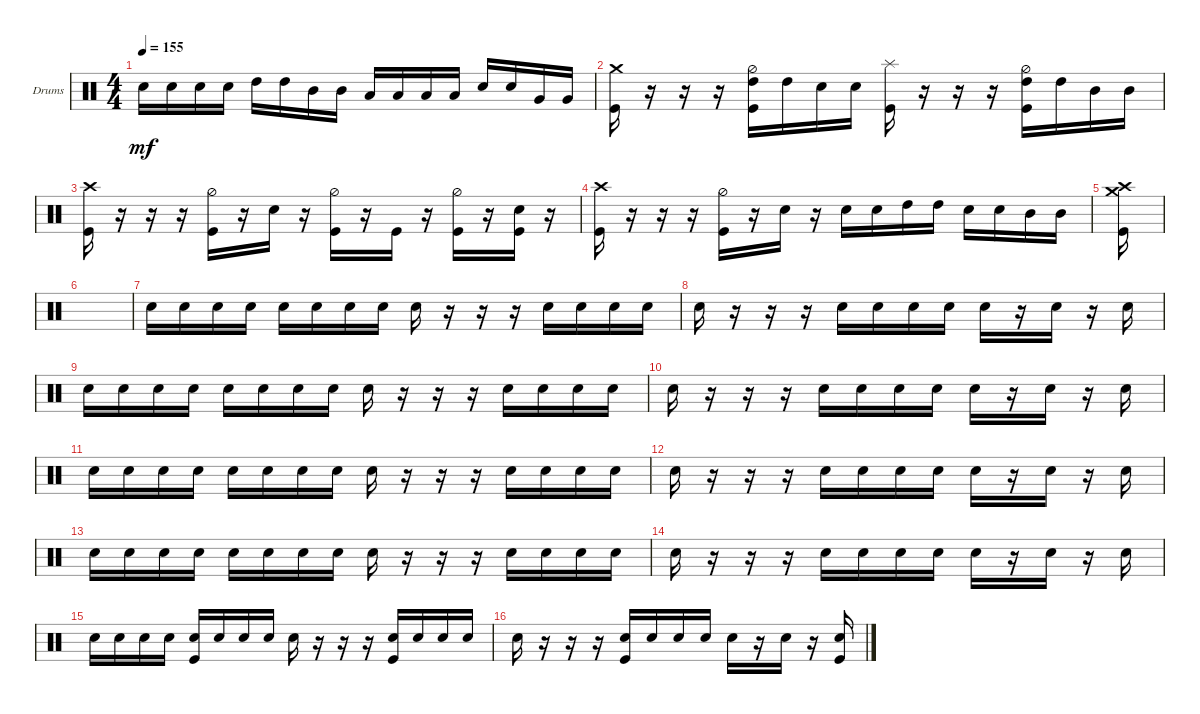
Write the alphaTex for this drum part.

\defaultSystemsLayout 4
\bracketExtendMode groupsimilarinstruments
\firstSystemTrackNameOrientation horizontal
\otherSystemsTrackNameOrientation horizontal
\track ("Drumkit" "Drums") {instrument percussion}
\staff {score}
\articulation defaults
\ts (4 4)
\tempo 155
\clef neutral
\ks c "Snare (hit) 2".16{dy mf} "Snare (hit) 2".16 "Snare (hit) 2".16 "Snare (hit) 2".16 "High Tom (hit)".16 "High Tom (hit)".16 "Mid Tom (hit)".16 "Mid Tom (hit)".16 "Low Tom (hit)".16 "Low Tom (hit)".16 "Low Tom (hit)".16 "Low Tom (hit)".16 "Snare (hit) 2".16 "Snare (hit) 2".16 "Very Low Tom (hit)".16 "Very Low Tom (hit)".16
|
("Kick (hit)" "Crash medium (hit)").16 r.16 r.16 r.16 ("Kick (hit)" "Hi-Hat (half)" "High Tom (hit)").16 "High Tom (hit)".16 "Snare (hit) 2".16 "Snare (hit) 2".16 ("Splash (hit)" "Kick (hit)").16 r.16 r.16 r.16 ("Kick (hit)" "Hi-Hat (half)" "High Tom (hit)").16 "High Tom (hit)".16 "Mid Tom (hit)".16 "Mid Tom (hit)".16 |
("Kick (hit)" "Crash high (hit)").16 r.16 r.16 r.16 ("Kick (hit)" "Hi-Hat (half)").16 r.16 "Snare (hit) 2".16 r.16 ("Kick (hit)" "Hi-Hat (half)").16 r.16 "Kick (hit)".16 r.16 ("Kick (hit)" "Hi-Hat (half)").16 r.16 ("Kick (hit)" "Snare (hit) 2").16 r.16 |
("Kick (hit)" "Crash high (hit)").16 r.16 r.16 r.16 ("Kick (hit)" "Hi-Hat (half)").16 r.16 "Snare (hit) 2".16 r.16 "Snare (hit) 2".16 "Snare (hit) 2".16 "High Tom (hit)".16 "High Tom (hit)".16 "Snare (hit) 2".16 "Snare (hit) 2".16 "Mid Tom (hit)".16 "Mid Tom (hit)".16 |
("Kick (hit)" "Crash medium (hit)" "Crash high (hit)").16 |
|
"Snare (hit) 2".16 "Snare (hit) 2".16 "Snare (hit) 2".16 "Snare (hit) 2".16 "Snare (hit) 2".16 "Snare (hit) 2".16 "Snare (hit) 2".16 "Snare (hit) 2".16 "Snare (hit) 2".16 r.16 r.16 r.16 "Snare (hit) 2".16 "Snare (hit) 2".16 "Snare (hit) 2".16 "Snare (hit) 2".16 |
"Snare (hit) 2".16 r.16 r.16 r.16 "Snare (hit) 2".16 "Snare (hit) 2".16 "Snare (hit) 2".16 "Snare (hit) 2".16 "Snare (hit) 2".16 r.16 "Snare (hit) 2".16 r.16 "Snare (hit) 2".16 |
"Snare (hit) 2".16 "Snare (hit) 2".16 "Snare (hit) 2".16 "Snare (hit) 2".16 "Snare (hit) 2".16 "Snare (hit) 2".16 "Snare (hit) 2".16 "Snare (hit) 2".16 "Snare (hit) 2".16 r.16 r.16 r.16 "Snare (hit) 2".16 "Snare (hit) 2".16 "Snare (hit) 2".16 "Snare (hit) 2".16 |
"Snare (hit) 2".16 r.16 r.16 r.16 "Snare (hit) 2".16 "Snare (hit) 2".16 "Snare (hit) 2".16 "Snare (hit) 2".16 "Snare (hit) 2".16 r.16 "Snare (hit) 2".16 r.16 "Snare (hit) 2".16 |
"Snare (hit) 2".16 "Snare (hit) 2".16 "Snare (hit) 2".16 "Snare (hit) 2".16 "Snare (hit) 2".16 "Snare (hit) 2".16 "Snare (hit) 2".16 "Snare (hit) 2".16 "Snare (hit) 2".16 r.16 r.16 r.16 "Snare (hit) 2".16 "Snare (hit) 2".16 "Snare (hit) 2".16 "Snare (hit) 2".16 |
"Snare (hit) 2".16 r.16 r.16 r.16 "Snare (hit) 2".16 "Snare (hit) 2".16 "Snare (hit) 2".16 "Snare (hit) 2".16 "Snare (hit) 2".16 r.16 "Snare (hit) 2".16 r.16 "Snare (hit) 2".16 |
"Snare (hit) 2".16 "Snare (hit) 2".16 "Snare (hit) 2".16 "Snare (hit) 2".16 "Snare (hit) 2".16 "Snare (hit) 2".16 "Snare (hit) 2".16 "Snare (hit) 2".16 "Snare (hit) 2".16 r.16 r.16 r.16 "Snare (hit) 2".16 "Snare (hit) 2".16 "Snare (hit) 2".16 "Snare (hit) 2".16 |
"Snare (hit) 2".16 r.16 r.16 r.16 "Snare (hit) 2".16 "Snare (hit) 2".16 "Snare (hit) 2".16 "Snare (hit) 2".16 "Snare (hit) 2".16 r.16 "Snare (hit) 2".16 r.16 "Snare (hit) 2".16 |
"Snare (hit) 2".16 "Snare (hit) 2".16 "Snare (hit) 2".16 "Snare (hit) 2".16 ("Snare (hit) 2" "Kick (hit)").16 "Snare (hit) 2".16 "Snare (hit) 2".16 "Snare (hit) 2".16 "Snare (hit) 2".16 r.16 r.16 r.16 ("Snare (hit) 2" "Kick (hit)").16 "Snare (hit) 2".16 "Snare (hit) 2".16 "Snare (hit) 2".16 |
"Snare (hit) 2".16 r.16 r.16 r.16 ("Snare (hit) 2" "Kick (hit)").16 "Snare (hit) 2".16 "Snare (hit) 2".16 "Snare (hit) 2".16 "Snare (hit) 2".16 r.16 "Snare (hit) 2".16 r.16 ("Snare (hit) 2" "Kick (hit)").16
